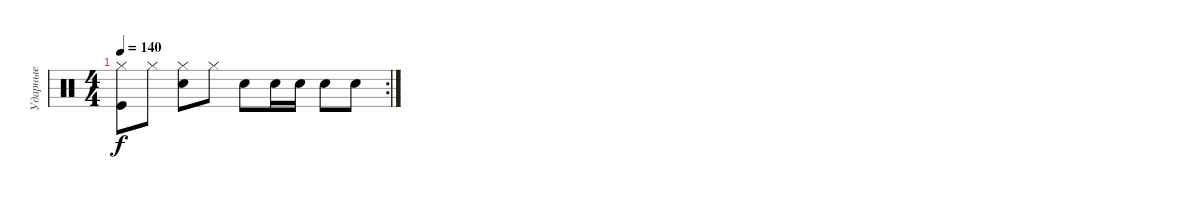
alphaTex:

\track ("Ударные" "Ударные") {instrument percussion}
\staff {score}
\articulation defaults
\rc 2
\ts (4 4)
\tempo 140
\clef neutral
\ks c
("Hi-Hat (closed)" "Kick (hit)").8{dy f} "Hi-Hat (closed)".8 ("Hi-Hat (closed)" "Snare (hit) 2").8 "Hi-Hat (closed)".8 "Snare (hit) 2".8 "Snare (hit) 2".16 "Snare (hit) 2".16 "Snare (hit) 2".8 "Snare (hit) 2".8
